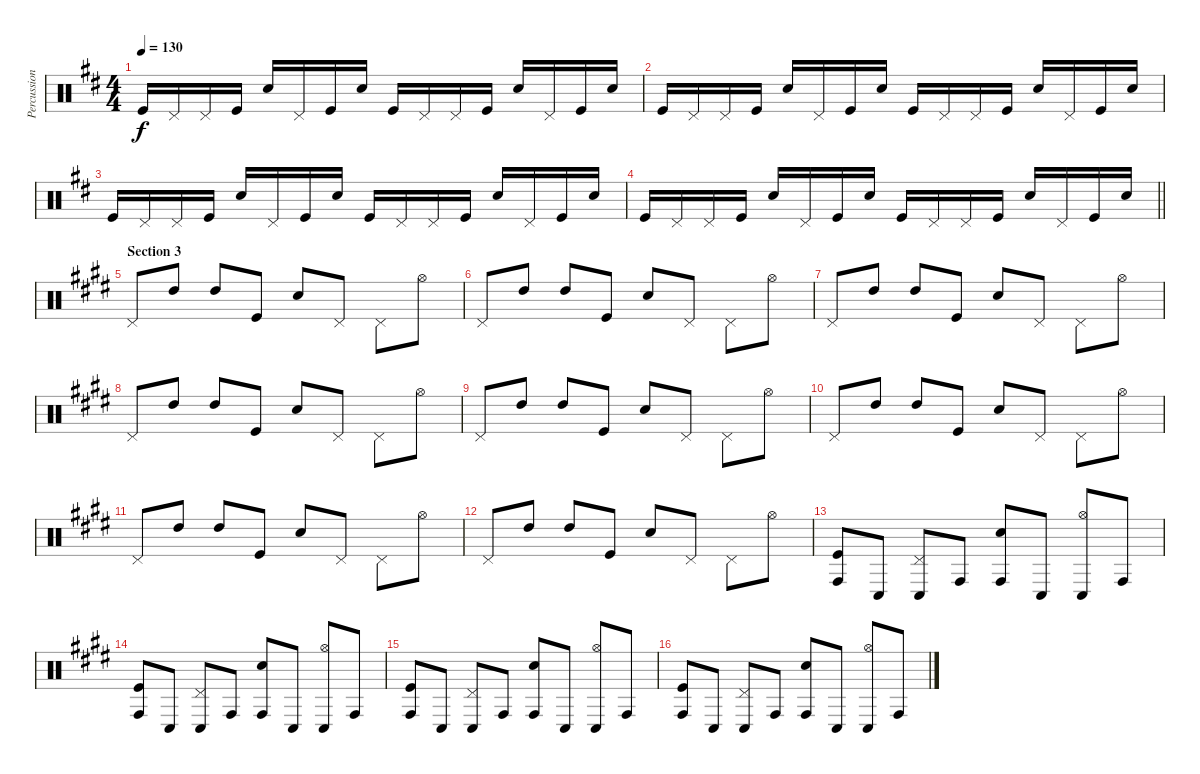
\track ("Percussion" "Percussion") {instrument percussion}
\staff {score}
\articulation defaults
\ts (4 4)
\tempo 130
\clef neutral
\ks d "Kick (hit)".16{dy f} "Pedal Hi-Hat (hit)".16 "Pedal Hi-Hat (hit)".16 "Kick (hit)".16 "Snare (hit) 2".16 "Pedal Hi-Hat (hit)".16 "Kick (hit)".16 "Snare (hit) 2".16 "Kick (hit)".16 "Pedal Hi-Hat (hit)".16 "Pedal Hi-Hat (hit)".16 "Kick (hit)".16 "Snare (hit) 2".16 "Pedal Hi-Hat (hit)".16 "Kick (hit)".16 "Snare (hit) 2".16
|
"Kick (hit)".16 "Pedal Hi-Hat (hit)".16 "Pedal Hi-Hat (hit)".16 "Kick (hit)".16 "Snare (hit) 2".16 "Pedal Hi-Hat (hit)".16 "Kick (hit)".16 "Snare (hit) 2".16 "Kick (hit)".16 "Pedal Hi-Hat (hit)".16 "Pedal Hi-Hat (hit)".16 "Kick (hit)".16 "Snare (hit) 2".16 "Pedal Hi-Hat (hit)".16 "Kick (hit)".16 "Snare (hit) 2".16 |
"Kick (hit)".16 "Pedal Hi-Hat (hit)".16 "Pedal Hi-Hat (hit)".16 "Kick (hit)".16 "Snare (hit) 2".16 "Pedal Hi-Hat (hit)".16 "Kick (hit)".16 "Snare (hit) 2".16 "Kick (hit)".16 "Pedal Hi-Hat (hit)".16 "Pedal Hi-Hat (hit)".16 "Kick (hit)".16 "Snare (hit) 2".16 "Pedal Hi-Hat (hit)".16 "Kick (hit)".16 "Snare (hit) 2".16 |
\barLineRight lightlight "Kick (hit)".16 "Pedal Hi-Hat (hit)".16 "Pedal Hi-Hat (hit)".16 "Kick (hit)".16 "Snare (hit) 2".16 "Pedal Hi-Hat (hit)".16 "Kick (hit)".16 "Snare (hit) 2".16 "Kick (hit)".16 "Pedal Hi-Hat (hit)".16 "Pedal Hi-Hat (hit)".16 "Kick (hit)".16 "Snare (hit) 2".16 "Pedal Hi-Hat (hit)".16 "Kick (hit)".16 "Snare (hit) 2".16
|
\section ("" "Section 3")
\ks e "Pedal Hi-Hat (hit)".8 "High Tom (hit)".8 "High Tom (hit)".8 "Kick (hit)".8 "Snare (hit) 2".8 "Pedal Hi-Hat (hit)".8 "Pedal Hi-Hat (hit)".8 "Hi-Hat (open)".8
|
"Pedal Hi-Hat (hit)".8 "High Tom (hit)".8 "High Tom (hit)".8 "Kick (hit)".8 "Snare (hit) 2".8 "Pedal Hi-Hat (hit)".8 "Pedal Hi-Hat (hit)".8 "Hi-Hat (open)".8 |
"Pedal Hi-Hat (hit)".8 "High Tom (hit)".8 "High Tom (hit)".8 "Kick (hit)".8 "Snare (hit) 2".8 "Pedal Hi-Hat (hit)".8 "Pedal Hi-Hat (hit)".8 "Hi-Hat (open)".8 |
"Pedal Hi-Hat (hit)".8 "High Tom (hit)".8 "High Tom (hit)".8 "Kick (hit)".8 "Snare (hit) 2".8 "Pedal Hi-Hat (hit)".8 "Pedal Hi-Hat (hit)".8 "Hi-Hat (open)".8 |
"Pedal Hi-Hat (hit)".8 "High Tom (hit)".8 "High Tom (hit)".8 "Kick (hit)".8 "Snare (hit) 2".8 "Pedal Hi-Hat (hit)".8 "Pedal Hi-Hat (hit)".8 "Hi-Hat (open)".8 |
"Pedal Hi-Hat (hit)".8 "High Tom (hit)".8 "High Tom (hit)".8 "Kick (hit)".8 "Snare (hit) 2".8 "Pedal Hi-Hat (hit)".8 "Pedal Hi-Hat (hit)".8 "Hi-Hat (open)".8 |
"Pedal Hi-Hat (hit)".8 "High Tom (hit)".8 "High Tom (hit)".8 "Kick (hit)".8 "Snare (hit) 2".8 "Pedal Hi-Hat (hit)".8 "Pedal Hi-Hat (hit)".8 "Hi-Hat (open)".8 |
"Pedal Hi-Hat (hit)".8 "High Tom (hit)".8 "High Tom (hit)".8 "Kick (hit)".8 "Snare (hit) 2".8 "Pedal Hi-Hat (hit)".8 "Pedal Hi-Hat (hit)".8 "Hi-Hat (open)".8 |
("Conga high (hit)" "Kick (hit)").8 "Conga low (hit)".8 ("Pedal Hi-Hat (hit)" "Conga low (hit)").8 "Conga high (hit)".8 ("Conga high (hit)" "Snare (hit) 2").8 "Conga low (hit)".8 ("Hi-Hat (open)" "Conga low (hit)").8 "Conga high (hit)".8 |
("Conga high (hit)" "Kick (hit)").8 "Conga low (hit)".8 ("Pedal Hi-Hat (hit)" "Conga low (hit)").8 "Conga high (hit)".8 ("Conga high (hit)" "Snare (hit) 2").8 "Conga low (hit)".8 ("Hi-Hat (open)" "Conga low (hit)").8 "Conga high (hit)".8 |
("Conga high (hit)" "Kick (hit)").8 "Conga low (hit)".8 ("Pedal Hi-Hat (hit)" "Conga low (hit)").8 "Conga high (hit)".8 ("Conga high (hit)" "Snare (hit) 2").8 "Conga low (hit)".8 ("Hi-Hat (open)" "Conga low (hit)").8 "Conga high (hit)".8 |
("Conga high (hit)" "Kick (hit)").8 "Conga low (hit)".8 ("Pedal Hi-Hat (hit)" "Conga low (hit)").8 "Conga high (hit)".8 ("Conga high (hit)" "Snare (hit) 2").8 "Conga low (hit)".8 ("Hi-Hat (open)" "Conga low (hit)").8 "Conga high (hit)".8
